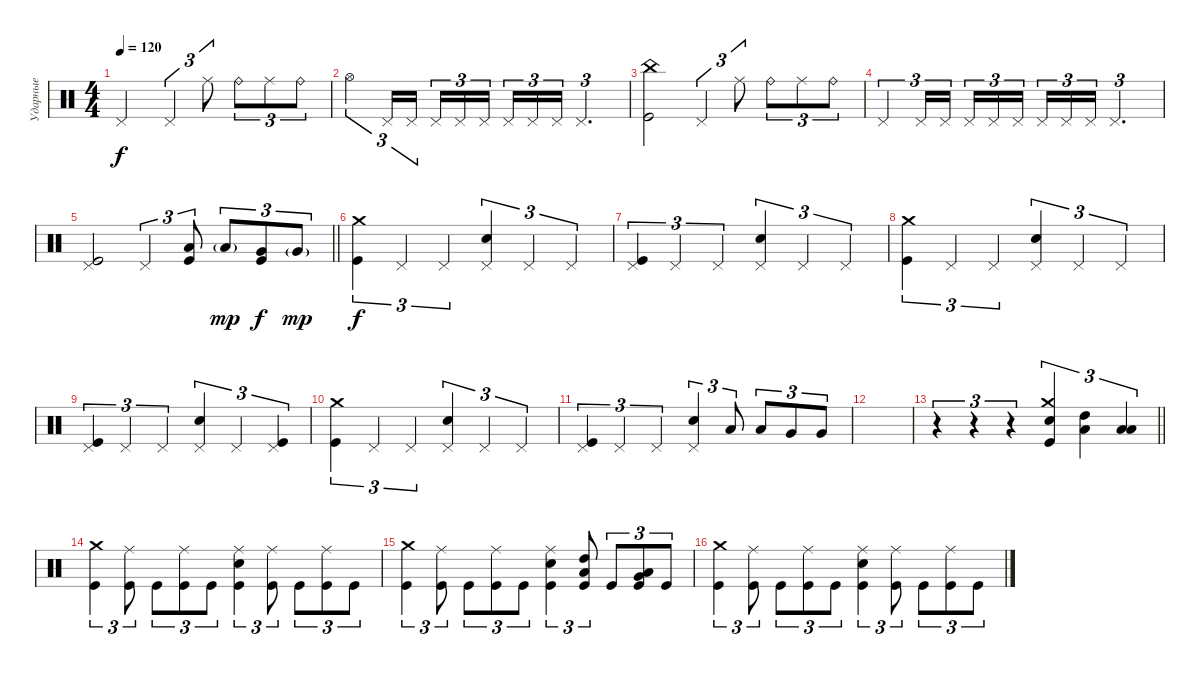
\track ("Ударные" "Ударные") {instrument percussion}
\staff {score}
\articulation defaults
\ts (4 4)
\tempo 120
\clef neutral
\ks c "Pedal Hi-Hat (hit)".2{dy f} "Pedal Hi-Hat (hit)".4{tu (3 2)} "Ride (middle)".8{tu (3 2)} "Ride (bell)".8{tu (3 2)} "Ride (middle)".8{tu (3 2)} "Ride (bell)".8{tu (3 2)}
|
"Hi-Hat (open)".4{tu (3 2)} "Pedal Hi-Hat (hit)".16{tu (3 2)} "Pedal Hi-Hat (hit)".16{tu (3 2)} "Pedal Hi-Hat (hit)".16{tu (3 2)} "Pedal Hi-Hat (hit)".16{tu (3 2)} "Pedal Hi-Hat (hit)".16{tu (3 2) beam splitsecondary} "Pedal Hi-Hat (hit)".16{tu (3 2)} "Pedal Hi-Hat (hit)".16{tu (3 2)} "Pedal Hi-Hat (hit)".16{tu (3 2)} "Pedal Hi-Hat (hit)".2{d tu (3 2)} |
("China (hit)" "Kick (hit)").2 "Pedal Hi-Hat (hit)".4{tu (3 2)} "Ride (middle)".8{tu (3 2)} "Ride (bell)".8{tu (3 2)} "Ride (middle)".8{tu (3 2)} "Ride (bell)".8{tu (3 2)} |
"Pedal Hi-Hat (hit)".4{tu (3 2)} "Pedal Hi-Hat (hit)".16{tu (3 2)} "Pedal Hi-Hat (hit)".16{tu (3 2)} "Pedal Hi-Hat (hit)".16{tu (3 2)} "Pedal Hi-Hat (hit)".16{tu (3 2)} "Pedal Hi-Hat (hit)".16{tu (3 2) beam splitsecondary} "Pedal Hi-Hat (hit)".16{tu (3 2)} "Pedal Hi-Hat (hit)".16{tu (3 2)} "Pedal Hi-Hat (hit)".16{tu (3 2)} "Pedal Hi-Hat (hit)".2{d tu (3 2)} |
\barLineRight lightlight
("Pedal Hi-Hat (hit)" "Kick (hit)").2 "Pedal Hi-Hat (hit)".4{tu (3 2)} ("Low Tom (hit)" "Kick (hit)").8{tu (3 2)} "Low Tom (hit)"{g}.8{tu (3 2) dy mp} ("Very Low Tom (hit)" "Kick (hit)").8{tu (3 2) dy f} "Very Low Tom (hit)"{g}.8{tu (3 2) dy mp} |
\section ("" " ")
("Crash medium (hit)" "Kick (hit)").4{tu (3 2) dy f} "Pedal Hi-Hat (hit)".4{tu (3 2)} "Pedal Hi-Hat (hit)".4{tu (3 2)} ("Pedal Hi-Hat (hit)" "Electric Snare (hit)").4{tu (3 2)} "Pedal Hi-Hat (hit)".4{tu (3 2)} "Pedal Hi-Hat (hit)".4{tu (3 2)} |
("Pedal Hi-Hat (hit)" "Kick (hit)").4{tu (3 2)} "Pedal Hi-Hat (hit)".4{tu (3 2)} "Pedal Hi-Hat (hit)".4{tu (3 2)} ("Pedal Hi-Hat (hit)" "Electric Snare (hit)").4{tu (3 2)} "Pedal Hi-Hat (hit)".4{tu (3 2)} "Pedal Hi-Hat (hit)".4{tu (3 2)} |
("Crash medium (hit)" "Kick (hit)").4{tu (3 2)} "Pedal Hi-Hat (hit)".4{tu (3 2)} "Pedal Hi-Hat (hit)".4{tu (3 2)} ("Pedal Hi-Hat (hit)" "Electric Snare (hit)").4{tu (3 2)} "Pedal Hi-Hat (hit)".4{tu (3 2)} "Pedal Hi-Hat (hit)".4{tu (3 2)} |
("Pedal Hi-Hat (hit)" "Kick (hit)").4{tu (3 2)} "Pedal Hi-Hat (hit)".4{tu (3 2)} "Pedal Hi-Hat (hit)".4{tu (3 2)} ("Pedal Hi-Hat (hit)" "Electric Snare (hit)").4{tu (3 2)} "Pedal Hi-Hat (hit)".4{tu (3 2)} ("Pedal Hi-Hat (hit)" "Kick (hit)").4{tu (3 2)} |
("Crash medium (hit)" "Kick (hit)").4{tu (3 2)} "Pedal Hi-Hat (hit)".4{tu (3 2)} "Pedal Hi-Hat (hit)".4{tu (3 2)} ("Pedal Hi-Hat (hit)" "Electric Snare (hit)").4{tu (3 2)} "Pedal Hi-Hat (hit)".4{tu (3 2)} "Pedal Hi-Hat (hit)".4{tu (3 2)} |
("Pedal Hi-Hat (hit)" "Kick (hit)").4{tu (3 2)} "Pedal Hi-Hat (hit)".4{tu (3 2)} "Pedal Hi-Hat (hit)".4{tu (3 2)} ("Pedal Hi-Hat (hit)" "Electric Snare (hit)").4{tu (3 2)} "Low Tom (hit)".8{tu (3 2)} "Low Tom (hit)".8{tu (3 2)} "Very Low Tom (hit)".8{tu (3 2)} "Very Low Tom (hit)".8{tu (3 2)} |
|
\barLineRight lightlight
r.4{tu (3 2)} r.4{tu (3 2)} r.4{tu (3 2)} ("Crash medium (hit)" "Kick (hit)" "Electric Snare (hit)").4{tu (3 2)} ("Low Tom (hit)" "High Tom (hit)").4{tu (3 2)} ("Low Floor Tom (hit)" "Low Tom (hit)").4{tu (3 2)} |
\section ("" " ")
("Crash medium (hit)" "Kick (hit)").4{tu (3 2)} ("Ride (middle)" "Kick (hit)").8{tu (3 2)} "Kick (hit)".8{tu (3 2)} ("Ride (middle)" "Kick (hit)").8{tu (3 2)} "Kick (hit)".8{tu (3 2)} ("Ride (middle)" "Electric Snare (hit)" "Kick (hit)").4{tu (3 2)} ("Ride (middle)" "Kick (hit)").8{tu (3 2)} "Kick (hit)".8{tu (3 2)} ("Ride (middle)" "Kick (hit)").8{tu (3 2)} "Kick (hit)".8{tu (3 2)} |
("Crash medium (hit)" "Kick (hit)").4{tu (3 2)} ("Ride (middle)" "Kick (hit)").8{tu (3 2)} "Kick (hit)".8{tu (3 2)} ("Ride (middle)" "Kick (hit)").8{tu (3 2)} "Kick (hit)".8{tu (3 2)} ("Ride (middle)" "Electric Snare (hit)" "Kick (hit)").4{tu (3 2)} ("Low Tom (hit)" "High Tom (hit)" "Kick (hit)").8{tu (3 2)} "Kick (hit)".8{tu (3 2)} ("Very Low Tom (hit)" "Low Tom (hit)" "Kick (hit)").8{tu (3 2)} "Kick (hit)".8{tu (3 2)} |
("Crash medium (hit)" "Kick (hit)").4{tu (3 2)} ("Ride (middle)" "Kick (hit)").8{tu (3 2)} "Kick (hit)".8{tu (3 2)} ("Ride (middle)" "Kick (hit)").8{tu (3 2)} "Kick (hit)".8{tu (3 2)} ("Ride (middle)" "Electric Snare (hit)" "Kick (hit)").4{tu (3 2)} ("Ride (middle)" "Kick (hit)").8{tu (3 2)} "Kick (hit)".8{tu (3 2)} ("Ride (middle)" "Kick (hit)").8{tu (3 2)} "Kick (hit)".8{tu (3 2)}
